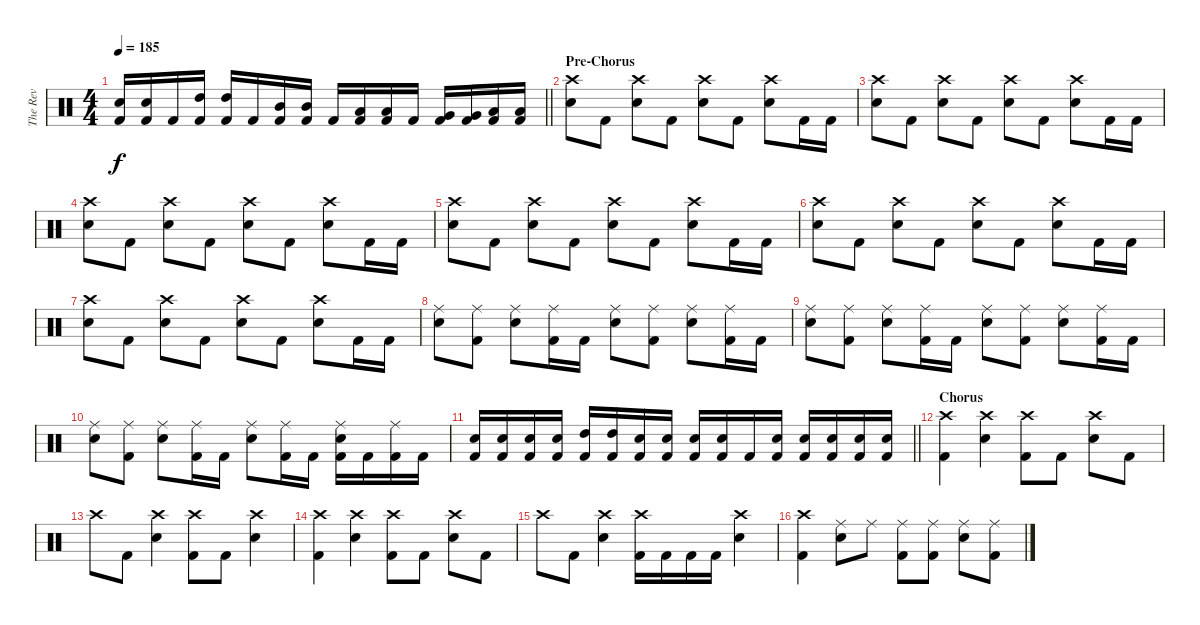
\track ("The Rev" "The Rev") {instrument percussion}
\staff {score}
\articulation defaults
\ts (4 4)
\tempo 185
\clef neutral
\barLineRight lightlight
\ks c
("Electric Snare (hit)" "Kick (hit) 2").16{dy f} ("Electric Snare (hit)" "Kick (hit) 2").16 "Kick (hit) 2".16 ("High Tom (hit)" "Kick (hit) 2").16 ("High Tom (hit)" "Kick (hit) 2").16 "Kick (hit) 2".16 ("Mid Tom (hit)" "Kick (hit) 2").16 ("Mid Tom (hit)" "Kick (hit) 2").16 "Kick (hit) 2".16 ("Low Tom (hit)" "Kick (hit) 2").16 ("Low Tom (hit)" "Kick (hit) 2").16 "Kick (hit) 2".16 ("Very Low Tom (hit)" "Kick (hit) 2").16 ("Very Low Tom (hit)" "Kick (hit) 2").16 ("Low Tom (hit)" "Kick (hit) 2").16 ("Low Tom (hit)" "Kick (hit) 2").16 |
\section ("" "Pre-Chorus")
("Crash high (hit)" "Electric Snare (hit)").8 "Kick (hit) 2".8 ("Crash high (hit)" "Electric Snare (hit)").8 "Kick (hit) 2".8 ("Crash high (hit)" "Electric Snare (hit)").8 "Kick (hit) 2".8 ("Crash high (hit)" "Electric Snare (hit)").8 "Kick (hit) 2".16 "Kick (hit) 2".16 |
("Crash high (hit)" "Electric Snare (hit)").8 "Kick (hit) 2".8 ("Crash high (hit)" "Electric Snare (hit)").8 "Kick (hit) 2".8 ("Crash high (hit)" "Electric Snare (hit)").8 "Kick (hit) 2".8 ("Crash high (hit)" "Electric Snare (hit)").8 "Kick (hit) 2".16 "Kick (hit) 2".16 |
("Crash high (hit)" "Electric Snare (hit)").8 "Kick (hit) 2".8 ("Crash high (hit)" "Electric Snare (hit)").8 "Kick (hit) 2".8 ("Crash high (hit)" "Electric Snare (hit)").8 "Kick (hit) 2".8 ("Crash high (hit)" "Electric Snare (hit)").8 "Kick (hit) 2".16 "Kick (hit) 2".16 |
("Crash high (hit)" "Electric Snare (hit)").8 "Kick (hit) 2".8 ("Crash high (hit)" "Electric Snare (hit)").8 "Kick (hit) 2".8 ("Crash high (hit)" "Electric Snare (hit)").8 "Kick (hit) 2".8 ("Crash high (hit)" "Electric Snare (hit)").8 "Kick (hit) 2".16 "Kick (hit) 2".16 |
("Crash high (hit)" "Electric Snare (hit)").8 "Kick (hit) 2".8 ("Crash high (hit)" "Electric Snare (hit)").8 "Kick (hit) 2".8 ("Crash high (hit)" "Electric Snare (hit)").8 "Kick (hit) 2".8 ("Crash high (hit)" "Electric Snare (hit)").8 "Kick (hit) 2".16 "Kick (hit) 2".16 |
("Crash high (hit)" "Electric Snare (hit)").8 "Kick (hit) 2".8 ("Crash high (hit)" "Electric Snare (hit)").8 "Kick (hit) 2".8 ("Crash high (hit)" "Electric Snare (hit)").8 "Kick (hit) 2".8 ("Crash high (hit)" "Electric Snare (hit)").8 "Kick (hit) 2".16 "Kick (hit) 2".16 |
("Ride (middle)" "Electric Snare (hit)").8 ("Ride (middle)" "Kick (hit) 2").8 ("Ride (middle)" "Electric Snare (hit)").8 ("Ride (middle)" "Kick (hit) 2").16 "Kick (hit) 2".16 ("Ride (middle)" "Electric Snare (hit)").8 ("Ride (middle)" "Kick (hit) 2").8 ("Ride (middle)" "Electric Snare (hit)").8 ("Ride (middle)" "Kick (hit) 2").16 "Kick (hit) 2".16 |
("Ride (middle)" "Electric Snare (hit)").8 ("Ride (middle)" "Kick (hit) 2").8 ("Ride (middle)" "Electric Snare (hit)").8 ("Ride (middle)" "Kick (hit) 2").16 "Kick (hit) 2".16 ("Ride (middle)" "Electric Snare (hit)").8 ("Ride (middle)" "Kick (hit) 2").8 ("Ride (middle)" "Electric Snare (hit)").8 ("Ride (middle)" "Kick (hit) 2").16 "Kick (hit) 2".16 |
("Ride (middle)" "Electric Snare (hit)").8 ("Ride (middle)" "Kick (hit) 2").8 ("Ride (middle)" "Electric Snare (hit)").8 ("Ride (middle)" "Kick (hit) 2").16 "Kick (hit) 2".16 ("Ride (middle)" "Electric Snare (hit)").8 ("Ride (middle)" "Kick (hit) 2").16 "Kick (hit) 2".16 ("Ride (middle)" "Electric Snare (hit)" "Kick (hit) 2").16 "Kick (hit) 2".16 ("Ride (middle)" "Kick (hit) 2").16 "Kick (hit) 2".16 |
\barLineRight lightlight
("Electric Snare (hit)" "Kick (hit) 2").16 ("Electric Snare (hit)" "Kick (hit) 2").16 ("Electric Snare (hit)" "Kick (hit) 2").16 ("Electric Snare (hit)" "Kick (hit) 2").16 ("High Tom (hit)" "Kick (hit) 2").16 ("High Tom (hit)" "Kick (hit) 2").16 ("Electric Snare (hit)" "Kick (hit) 2").16 ("Electric Snare (hit)" "Kick (hit) 2").16 ("Electric Snare (hit)" "Kick (hit) 2").16 ("Electric Snare (hit)" "Kick (hit) 2").16 "Kick (hit) 2".16 ("Electric Snare (hit)" "Kick (hit) 2").16 ("Electric Snare (hit)" "Kick (hit) 2").16 ("Electric Snare (hit)" "Kick (hit) 2").16 ("Electric Snare (hit)" "Kick (hit) 2").16 ("Electric Snare (hit)" "Kick (hit) 2").16 |
\section ("" "Chorus")
("Crash high (hit)" "Kick (hit) 2").4 ("Crash high (hit)" "Electric Snare (hit)").4 ("Crash high (hit)" "Kick (hit) 2").8 "Kick (hit) 2".8 ("Crash high (hit)" "Electric Snare (hit)").8 "Kick (hit) 2".8 |
"Crash high (hit)".8 "Kick (hit) 2".8 ("Crash high (hit)" "Electric Snare (hit)").4 ("Crash high (hit)" "Kick (hit) 2").8 "Kick (hit) 2".8 ("Crash high (hit)" "Electric Snare (hit)").4 |
("Crash high (hit)" "Kick (hit) 2").4 ("Crash high (hit)" "Electric Snare (hit)").4 ("Crash high (hit)" "Kick (hit) 2").8 "Kick (hit) 2".8 ("Crash high (hit)" "Electric Snare (hit)").8 "Kick (hit) 2".8 |
"Crash high (hit)".8 "Kick (hit) 2".8 ("Crash high (hit)" "Electric Snare (hit)").4 ("Crash high (hit)" "Kick (hit) 2").16 "Kick (hit) 2".16 "Kick (hit) 2".16 "Kick (hit) 2".16 ("Crash high (hit)" "Electric Snare (hit)").4 |
("Crash high (hit)" "Kick (hit) 2").4 ("Ride (middle)" "Electric Snare (hit)").8 "Ride (middle)".8 ("Ride (middle)" "Kick (hit) 2").8 ("Ride (middle)" "Kick (hit) 2").8 ("Ride (middle)" "Electric Snare (hit)").8 ("Ride (middle)" "Kick (hit) 2").8
